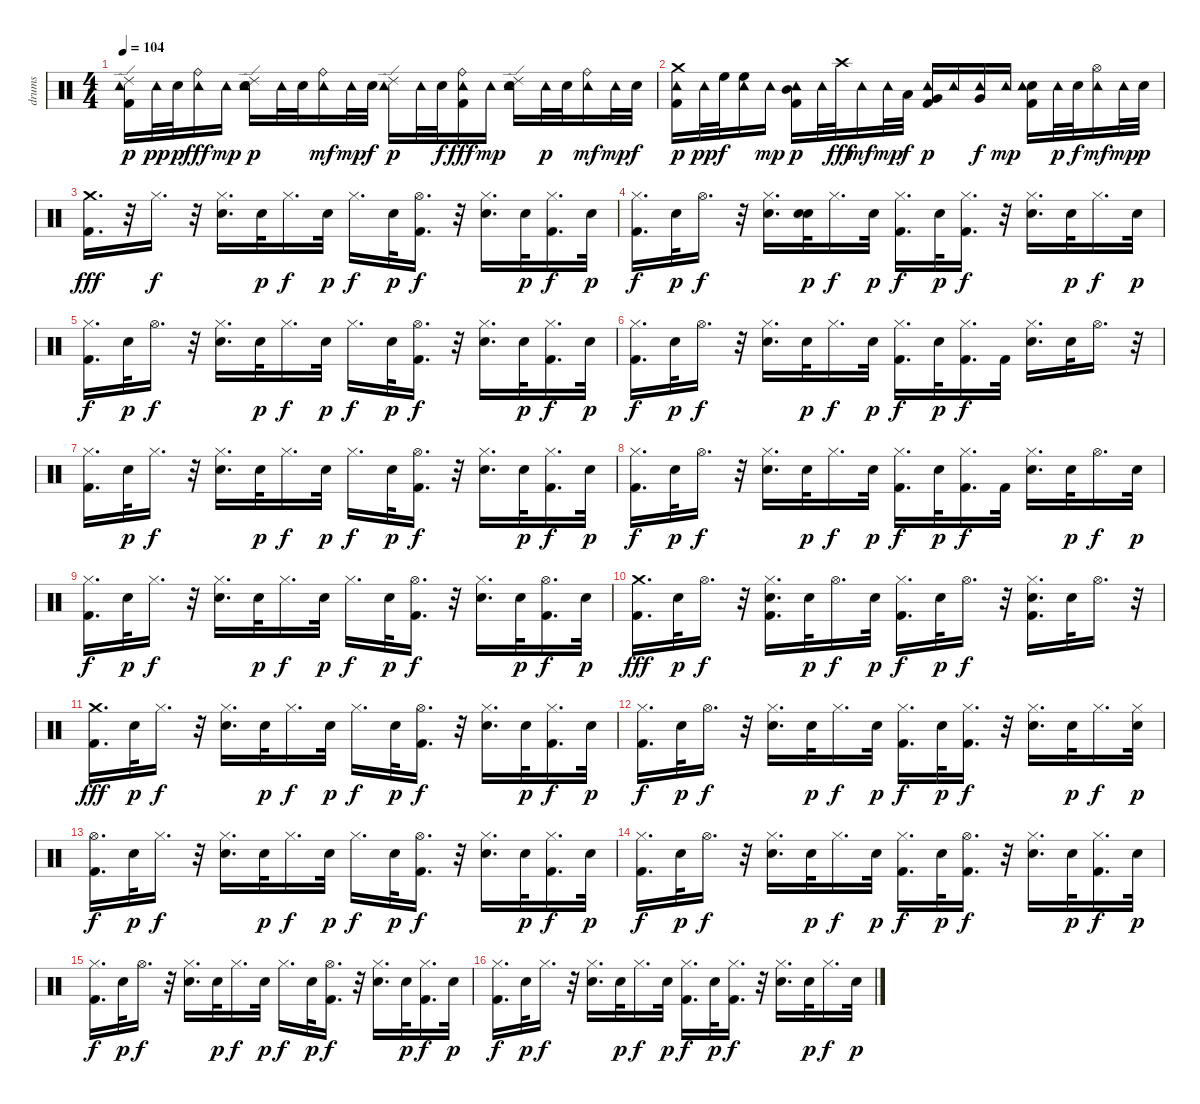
\track ("drums" "drums") {instrument percussion}
\staff {score}
\articulation defaults
\ts (4 4)
\tempo 104
\clef neutral
\ks c
("Kick (hit) 2" "Ride (edge) 2" "Tambourine (hit)").16{dy p} "Tambourine (hit)".32{dy pp} "Electric Snare (hit)".32{dy p} ("Ride (bell)" "Tambourine (hit)").16{dy fff} "Tambourine (hit)".16{dy mp} ("Electric Snare (hit)" "Ride (edge) 2" "Tambourine (hit)").16{dy p} "Tambourine (hit)".32 "Electric Snare (hit)".32 ("Ride (bell)" "Tambourine (hit)").16{dy mf} "Tambourine (hit)".32{dy mp} "Electric Snare (hit)".32{dy f} ("Ride (edge) 2" "Tambourine (hit)").16{dy p} "Tambourine (hit)".32 "Electric Snare (hit)".32{dy f} ("Kick (hit) 2" "Ride (bell)" "Tambourine (hit)").16{dy fff} "Tambourine (hit)".16{dy mp} ("Electric Snare (hit)" "Ride (edge) 2" "Tambourine (hit)").16 "Tambourine (hit)".32{dy p} "Electric Snare (hit)".32 ("Ride (bell)" "Tambourine (hit)").16{dy mf} "Tambourine (hit)".32{dy mp} "Electric Snare (hit)".32{dy f} |
("Kick (hit) 2" "Crash medium (hit)" "Tambourine (hit)").16{dy p} "Tambourine (hit)".32{dy pp} "High Floor Tom (hit)".32{dy f} ("High Floor Tom (hit)" "Tambourine (hit)").16 "Tambourine (hit)".16{dy mp} ("Mid Tom (hit)" "Kick (hit) 2" "Tambourine (hit)").16{dy p} "Tambourine (hit)".32 "Crash high (hit)".32{dy fff} "Tambourine (hit)".16{dy mf} "Tambourine (hit)".32{dy mp} "Low Tom (hit)".32{dy f} ("Very Low Tom (hit)" "Kick (hit) 2" "Tambourine (hit)").16{dy p} "Tambourine (hit)".16 ("Very Low Tom (hit)" "Tambourine (hit)").16{dy f} "Tambourine (hit)".16{dy mp} ("Electric Snare (hit)" "Kick (hit) 2" "Tambourine (hit)").16 "Tambourine (hit)".32{dy p} "Electric Snare (hit)".32{dy f} ("Hi-Hat (open)" "Tambourine (hit)").16{dy mf} "Tambourine (hit)".32{dy mp} "Electric Snare (hit)".32{dy p} |
("Kick (hit) 2" "Crash medium (hit)").16{d dy fff} r.32 "Hi-Hat (closed)".16{d dy f} r.32 ("Electric Snare (hit)" "Hi-Hat (closed)").16{d} "Electric Snare (hit)".32{dy p} "Hi-Hat (closed)".16{d dy f} "Electric Snare (hit)".32{dy p} "Hi-Hat (closed)".16{d dy f} "Electric Snare (hit)".32{dy p} ("Kick (hit) 2" "Hi-Hat (open)").16{d dy f} r.32 ("Electric Snare (hit)" "Hi-Hat (closed)").16{d} "Electric Snare (hit)".32{dy p} ("Kick (hit) 2" "Hi-Hat (closed)").16{d dy f} "Electric Snare (hit)".32{dy p} |
("Kick (hit) 2" "Hi-Hat (closed)").16{d dy f} "Electric Snare (hit)".32{dy p} "Hi-Hat (open)".16{d dy f} r.32 ("Electric Snare (hit)" "Hi-Hat (closed)").16{d} ("Electric Snare (hit)" "Electric Snare (hit)").32{dy p} "Hi-Hat (closed)".16{d dy f} "Electric Snare (hit)".32{dy p} ("Kick (hit) 2" "Hi-Hat (closed)").16{d dy f} "Electric Snare (hit)".32{dy p} ("Kick (hit) 2" "Hi-Hat (closed)").16{d dy f} r.32 ("Electric Snare (hit)" "Hi-Hat (closed)").16{d} "Electric Snare (hit)".32{dy p} "Hi-Hat (closed)".16{d dy f} "Electric Snare (hit)".32{dy p} |
("Kick (hit) 2" "Hi-Hat (closed)").16{d dy f} "Electric Snare (hit)".32{dy p} "Hi-Hat (open)".16{d dy f} r.32 ("Electric Snare (hit)" "Hi-Hat (closed)").16{d} "Electric Snare (hit)".32{dy p} "Hi-Hat (closed)".16{d dy f} "Electric Snare (hit)".32{dy p} "Hi-Hat (closed)".16{d dy f} "Electric Snare (hit)".32{dy p} ("Kick (hit) 2" "Hi-Hat (open)").16{d dy f} r.32 ("Electric Snare (hit)" "Hi-Hat (closed)").16{d} "Electric Snare (hit)".32{dy p} ("Kick (hit) 2" "Hi-Hat (closed)").16{d dy f} "Electric Snare (hit)".32{dy p} |
("Kick (hit) 2" "Hi-Hat (closed)").16{d dy f} "Electric Snare (hit)".32{dy p} "Hi-Hat (open)".16{d dy f} r.32 ("Electric Snare (hit)" "Hi-Hat (closed)").16{d} "Electric Snare (hit)".32{dy p} "Hi-Hat (closed)".16{d dy f} "Electric Snare (hit)".32{dy p} ("Kick (hit) 2" "Hi-Hat (closed)").16{d dy f} "Electric Snare (hit)".32{dy p} ("Kick (hit) 2" "Hi-Hat (closed)").16{d dy f} "Kick (hit) 2".32 ("Electric Snare (hit)" "Hi-Hat (closed)").16{d} "Electric Snare (hit)".32 "Hi-Hat (open)".16{d} r.32 |
("Kick (hit) 2" "Hi-Hat (closed)").16{d} "Electric Snare (hit)".32{dy p} "Hi-Hat (closed)".16{d dy f} r.32 ("Electric Snare (hit)" "Hi-Hat (closed)").16{d} "Electric Snare (hit)".32{dy p} "Hi-Hat (closed)".16{d dy f} "Electric Snare (hit)".32{dy p} "Hi-Hat (closed)".16{d dy f} "Electric Snare (hit)".32{dy p} ("Kick (hit) 2" "Hi-Hat (open)").16{d dy f} r.32 ("Electric Snare (hit)" "Hi-Hat (closed)").16{d} "Electric Snare (hit)".32{dy p} ("Kick (hit) 2" "Hi-Hat (closed)").16{d dy f} "Electric Snare (hit)".32{dy p} |
("Kick (hit) 2" "Hi-Hat (closed)").16{d dy f} "Electric Snare (hit)".32{dy p} "Hi-Hat (open)".16{d dy f} r.32 ("Electric Snare (hit)" "Hi-Hat (closed)").16{d} "Electric Snare (hit)".32{dy p} "Hi-Hat (closed)".16{d dy f} "Electric Snare (hit)".32{dy p} ("Kick (hit) 2" "Hi-Hat (closed)").16{d dy f} "Electric Snare (hit)".32{dy p} ("Kick (hit) 2" "Hi-Hat (closed)").16{d dy f} "Kick (hit) 2".32 ("Electric Snare (hit)" "Hi-Hat (closed)").16{d} "Electric Snare (hit)".32{dy p} "Hi-Hat (open)".16{d dy f} "Electric Snare (hit)".32{dy p} |
("Kick (hit) 2" "Hi-Hat (closed)").16{d dy f} "Electric Snare (hit)".32{dy p} "Hi-Hat (closed)".16{d dy f} r.32 ("Electric Snare (hit)" "Hi-Hat (closed)").16{d} "Electric Snare (hit)".32{dy p} "Hi-Hat (closed)".16{d dy f} "Electric Snare (hit)".32{dy p} "Hi-Hat (closed)".16{d dy f} "Electric Snare (hit)".32{dy p} ("Kick (hit) 2" "Hi-Hat (open)").16{d dy f} r.32 ("Electric Snare (hit)" "Hi-Hat (closed)").16{d} "Electric Snare (hit)".32{dy p} ("Kick (hit) 2" "Hi-Hat (open)").16{d dy f} "Electric Snare (hit)".32{dy p} |
("Kick (hit) 2" "Crash medium (hit)").16{d dy fff} "Electric Snare (hit)".32{dy p} "Hi-Hat (open)".16{d dy f} r.32 ("Kick (hit) 2" "Electric Snare (hit)" "Hi-Hat (closed)").16{d} "Electric Snare (hit)".32{dy p} "Hi-Hat (open)".16{d dy f} "Electric Snare (hit)".32{dy p} ("Kick (hit) 2" "Hi-Hat (closed)").16{d dy f} "Electric Snare (hit)".32{dy p} "Hi-Hat (open)".16{d dy f} r.32 ("Electric Snare (hit)" "Kick (hit) 2" "Hi-Hat (closed)").16{d} "Electric Snare (hit)".32 "Hi-Hat (open)".16{d} r.32 |
("Kick (hit) 2" "Crash medium (hit)").16{d dy fff} "Electric Snare (hit)".32{dy p} "Hi-Hat (closed)".16{d dy f} r.32 ("Electric Snare (hit)" "Hi-Hat (closed)").16{d} "Electric Snare (hit)".32{dy p} "Hi-Hat (closed)".16{d dy f} "Electric Snare (hit)".32{dy p} "Hi-Hat (closed)".16{d dy f} "Electric Snare (hit)".32{dy p} ("Kick (hit) 2" "Hi-Hat (open)").16{d dy f} r.32 ("Electric Snare (hit)" "Hi-Hat (closed)").16{d} "Electric Snare (hit)".32{dy p} ("Kick (hit) 2" "Hi-Hat (closed)").16{d dy f} "Electric Snare (hit)".32{dy p} |
("Kick (hit) 2" "Hi-Hat (closed)").16{d dy f} "Electric Snare (hit)".32{dy p} "Hi-Hat (open)".16{d dy f} r.32 ("Electric Snare (hit)" "Hi-Hat (closed)").16{d} "Electric Snare (hit)".32{dy p} "Hi-Hat (closed)".16{d dy f} "Electric Snare (hit)".32{dy p} ("Kick (hit) 2" "Hi-Hat (closed)").16{d dy f} "Electric Snare (hit)".32{dy p} ("Kick (hit) 2" "Hi-Hat (closed)").16{d dy f} r.32 ("Electric Snare (hit)" "Hi-Hat (closed)").16{d} "Electric Snare (hit)".32{dy p} "Hi-Hat (closed)".16{d dy f} ("Electric Snare (hit)" "Hi-Hat (closed)").32{dy p} |
("Kick (hit) 2" "Hi-Hat (open)").16{d dy f} "Electric Snare (hit)".32{dy p} "Hi-Hat (closed)".16{d dy f} r.32 ("Electric Snare (hit)" "Hi-Hat (closed)").16{d} "Electric Snare (hit)".32{dy p} "Hi-Hat (closed)".16{d dy f} "Electric Snare (hit)".32{dy p} "Hi-Hat (closed)".16{d dy f} "Electric Snare (hit)".32{dy p} ("Kick (hit) 2" "Hi-Hat (open)").16{d dy f} r.32 ("Electric Snare (hit)" "Hi-Hat (closed)").16{d} "Electric Snare (hit)".32{dy p} ("Kick (hit) 2" "Hi-Hat (closed)").16{d dy f} "Electric Snare (hit)".32{dy p} |
("Kick (hit) 2" "Hi-Hat (closed)").16{d dy f} "Electric Snare (hit)".32{dy p} "Hi-Hat (open)".16{d dy f} r.32 ("Electric Snare (hit)" "Hi-Hat (closed)").16{d} "Electric Snare (hit)".32{dy p} "Hi-Hat (closed)".16{d dy f} "Electric Snare (hit)".32{dy p} ("Kick (hit) 2" "Hi-Hat (closed)").16{d dy f} "Electric Snare (hit)".32{dy p} ("Kick (hit) 2" "Hi-Hat (open)").16{d dy f} r.32 ("Electric Snare (hit)" "Hi-Hat (closed)").16{d} "Electric Snare (hit)".32{dy p} ("Kick (hit) 2" "Hi-Hat (closed)").16{d dy f} "Electric Snare (hit)".32{dy p} |
("Kick (hit) 2" "Hi-Hat (closed)").16{d dy f} "Electric Snare (hit)".32{dy p} "Hi-Hat (open)".16{d dy f} r.32 ("Electric Snare (hit)" "Hi-Hat (closed)").16{d} "Electric Snare (hit)".32{dy p} "Hi-Hat (closed)".16{d dy f} "Electric Snare (hit)".32{dy p} "Hi-Hat (closed)".16{d dy f} "Electric Snare (hit)".32{dy p} ("Kick (hit) 2" "Hi-Hat (open)").16{d dy f} r.32 ("Electric Snare (hit)" "Hi-Hat (closed)").16{d} "Electric Snare (hit)".32{dy p} ("Kick (hit) 2" "Hi-Hat (closed)").16{d dy f} "Electric Snare (hit)".32{dy p} |
("Kick (hit) 2" "Hi-Hat (closed)").16{d dy f} "Electric Snare (hit)".32{dy p} "Hi-Hat (closed)".16{d dy f} r.32 ("Electric Snare (hit)" "Hi-Hat (closed)").16{d} "Electric Snare (hit)".32{dy p} "Hi-Hat (closed)".16{d dy f} "Electric Snare (hit)".32{dy p} ("Kick (hit) 2" "Hi-Hat (closed)").16{d dy f} "Electric Snare (hit)".32{dy p} ("Kick (hit) 2" "Hi-Hat (closed)").16{d dy f} r.32 ("Electric Snare (hit)" "Hi-Hat (closed)").16{d} "Electric Snare (hit)".32{dy p} "Hi-Hat (closed)".16{d dy f} "Electric Snare (hit)".32{dy p}
